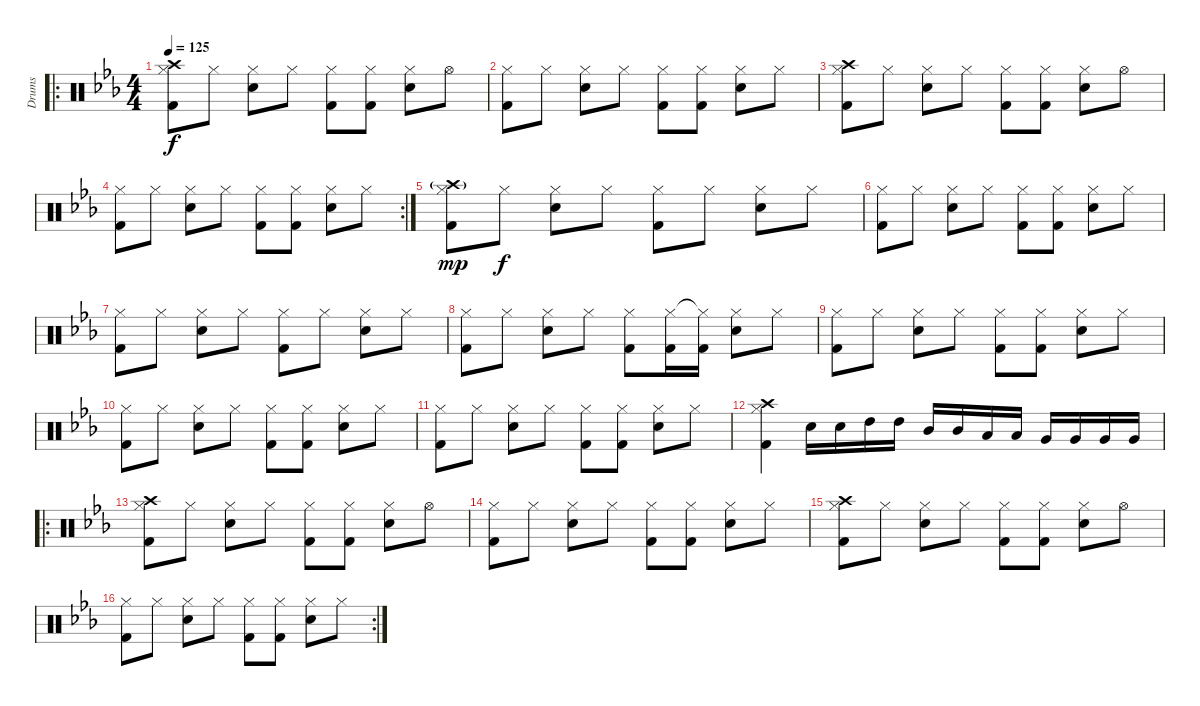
\track ("Drums" "Drums") {instrument percussion}
\staff {score}
\articulation defaults
\ro
\ts (4 4)
\tempo 125
\clef neutral
\ks eb
("Hi-Hat (closed)" "Crash high (hit)" "Kick (hit) 2").8{dy f} "Hi-Hat (closed)".8 ("Hi-Hat (closed)" "Snare (hit) 2").8 "Hi-Hat (closed)".8 ("Hi-Hat (closed)" "Kick (hit) 2").8 ("Hi-Hat (closed)" "Kick (hit) 2").8 ("Hi-Hat (closed)" "Snare (hit) 2").8 "Hi-Hat (open)".8 |
("Hi-Hat (closed)" "Kick (hit) 2").8 "Hi-Hat (closed)".8 ("Hi-Hat (closed)" "Snare (hit) 2").8 "Hi-Hat (closed)".8 ("Hi-Hat (closed)" "Kick (hit) 2").8 ("Hi-Hat (closed)" "Kick (hit) 2").8 ("Hi-Hat (closed)" "Snare (hit) 2").8 "Hi-Hat (closed)".8 |
("Hi-Hat (closed)" "Crash high (hit)" "Kick (hit) 2").8 "Hi-Hat (closed)".8 ("Hi-Hat (closed)" "Snare (hit) 2").8 "Hi-Hat (closed)".8 ("Hi-Hat (closed)" "Kick (hit) 2").8 ("Hi-Hat (closed)" "Kick (hit) 2").8 ("Hi-Hat (closed)" "Snare (hit) 2").8 "Hi-Hat (open)".8 |
\rc 2
("Hi-Hat (closed)" "Kick (hit) 2").8 "Hi-Hat (closed)".8 ("Hi-Hat (closed)" "Snare (hit) 2").8 "Hi-Hat (closed)".8 ("Hi-Hat (closed)" "Kick (hit) 2").8 ("Hi-Hat (closed)" "Kick (hit) 2").8 ("Hi-Hat (closed)" "Snare (hit) 2").8 "Hi-Hat (closed)".8 |
("Hi-Hat (closed)" "Crash high (hit)"{g} "Kick (hit) 2").8{dy mp} "Hi-Hat (closed)".8{dy f} ("Hi-Hat (closed)" "Electric Snare (hit)").8 "Hi-Hat (closed)".8 ("Hi-Hat (closed)" "Kick (hit) 2").8 "Hi-Hat (closed)".8 ("Hi-Hat (closed)" "Electric Snare (hit)").8 "Hi-Hat (closed)".8 |
("Hi-Hat (closed)" "Kick (hit) 2").8 "Hi-Hat (closed)".8 ("Hi-Hat (closed)" "Electric Snare (hit)").8 "Hi-Hat (closed)".8 ("Hi-Hat (closed)" "Kick (hit) 2").8 ("Hi-Hat (closed)" "Kick (hit) 2").8 ("Hi-Hat (closed)" "Electric Snare (hit)").8 "Hi-Hat (closed)".8 |
("Hi-Hat (closed)" "Kick (hit) 2").8 "Hi-Hat (closed)".8 ("Hi-Hat (closed)" "Electric Snare (hit)").8 "Hi-Hat (closed)".8 ("Hi-Hat (closed)" "Kick (hit) 2").8 "Hi-Hat (closed)".8 ("Hi-Hat (closed)" "Electric Snare (hit)").8 "Hi-Hat (closed)".8 |
("Hi-Hat (closed)" "Kick (hit) 2").8 "Hi-Hat (closed)".8 ("Hi-Hat (closed)" "Electric Snare (hit)").8 "Hi-Hat (closed)".8 ("Hi-Hat (closed)" "Kick (hit) 2").8 ("Hi-Hat (closed)" "Kick (hit) 2").16 ("Hi-Hat (closed)"{t} "Kick (hit) 2").16 ("Hi-Hat (closed)" "Electric Snare (hit)").8 "Hi-Hat (closed)".8 |
("Hi-Hat (closed)" "Kick (hit) 2").8 "Hi-Hat (closed)".8 ("Hi-Hat (closed)" "Electric Snare (hit)").8 "Hi-Hat (closed)".8 ("Hi-Hat (closed)" "Kick (hit) 2").8 ("Hi-Hat (closed)" "Kick (hit) 2").8 ("Hi-Hat (closed)" "Electric Snare (hit)").8 "Hi-Hat (closed)".8 |
("Hi-Hat (closed)" "Kick (hit) 2").8 "Hi-Hat (closed)".8 ("Hi-Hat (closed)" "Electric Snare (hit)").8 "Hi-Hat (closed)".8 ("Hi-Hat (closed)" "Kick (hit) 2").8 ("Hi-Hat (closed)" "Kick (hit) 2").8 ("Hi-Hat (closed)" "Electric Snare (hit)").8 "Hi-Hat (closed)".8 |
("Hi-Hat (closed)" "Kick (hit) 2").8 "Hi-Hat (closed)".8 ("Hi-Hat (closed)" "Electric Snare (hit)").8 "Hi-Hat (closed)".8 ("Hi-Hat (closed)" "Kick (hit) 2").8 ("Hi-Hat (closed)" "Kick (hit) 2").8 ("Hi-Hat (closed)" "Electric Snare (hit)").8 "Hi-Hat (closed)".8 |
("Hi-Hat (closed)" "Crash high (hit)" "Kick (hit) 2").4 "Electric Snare (hit)".16 "Electric Snare (hit)".16 "High Tom (hit)".16 "High Tom (hit)".16 "Mid Tom (hit)".16 "Mid Tom (hit)".16 "Low Tom (hit)".16 "Low Tom (hit)".16 "Very Low Tom (hit)".16 "Very Low Tom (hit)".16 "Very Low Tom (hit)".16 "Very Low Tom (hit)".16 |
\ro
("Hi-Hat (closed)" "Crash high (hit)" "Kick (hit) 2").8 "Hi-Hat (closed)".8 ("Hi-Hat (closed)" "Snare (hit) 2").8 "Hi-Hat (closed)".8 ("Hi-Hat (closed)" "Kick (hit) 2").8 ("Hi-Hat (closed)" "Kick (hit) 2").8 ("Hi-Hat (closed)" "Snare (hit) 2").8 "Hi-Hat (open)".8 |
("Hi-Hat (closed)" "Kick (hit) 2").8 "Hi-Hat (closed)".8 ("Hi-Hat (closed)" "Snare (hit) 2").8 "Hi-Hat (closed)".8 ("Hi-Hat (closed)" "Kick (hit) 2").8 ("Hi-Hat (closed)" "Kick (hit) 2").8 ("Hi-Hat (closed)" "Snare (hit) 2").8 "Hi-Hat (closed)".8 |
("Hi-Hat (closed)" "Crash high (hit)" "Kick (hit) 2").8 "Hi-Hat (closed)".8 ("Hi-Hat (closed)" "Snare (hit) 2").8 "Hi-Hat (closed)".8 ("Hi-Hat (closed)" "Kick (hit) 2").8 ("Hi-Hat (closed)" "Kick (hit) 2").8 ("Hi-Hat (closed)" "Snare (hit) 2").8 "Hi-Hat (open)".8 |
\rc 2
("Hi-Hat (closed)" "Kick (hit) 2").8 "Hi-Hat (closed)".8 ("Hi-Hat (closed)" "Snare (hit) 2").8 "Hi-Hat (closed)".8 ("Hi-Hat (closed)" "Kick (hit) 2").8 ("Hi-Hat (closed)" "Kick (hit) 2").8 ("Hi-Hat (closed)" "Snare (hit) 2").8 "Hi-Hat (closed)".8
